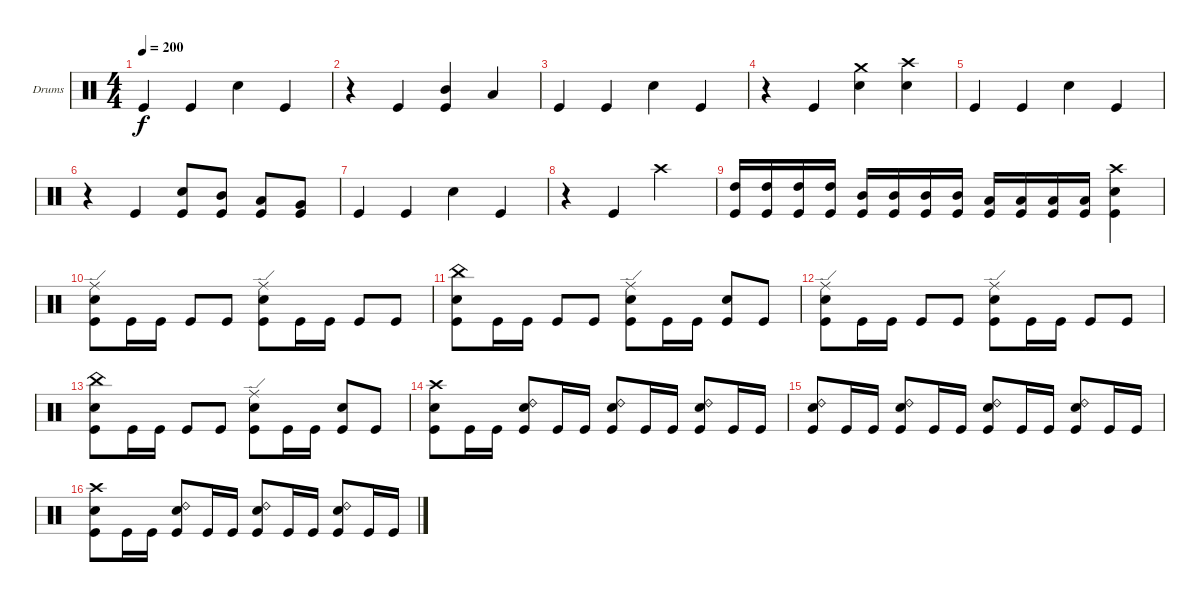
\bracketExtendMode groupsimilarinstruments
\firstSystemTrackNameOrientation horizontal
\otherSystemsTrackNameOrientation horizontal
\track ("Canadien" "Drums") {instrument percussion}
\staff {score}
\articulation defaults
\ts (4 4)
\tempo 200
\clef neutral
\ks c "Kick (hit)".4{dy f} "Kick (hit)".4 "Snare (hit) 2".4 "Kick (hit)".4
|
r.4 "Kick (hit)".4 ("Mid Tom (hit)" "Kick (hit)").4 "Low Tom (hit)".4 |
"Kick (hit)".4 "Kick (hit)".4 "Snare (hit) 2".4 "Kick (hit)".4 |
r.4 "Kick (hit)".4 ("Crash medium (hit)" "Snare (hit) 2").4 ("Crash high (hit)" "Snare (hit) 2").4 |
"Kick (hit)".4 "Kick (hit)".4 "Snare (hit) 2".4 "Kick (hit)".4 |
r.4 "Kick (hit)".4 ("Snare (hit) 2" "Kick (hit)").8 ("Mid Tom (hit)" "Kick (hit)").8 ("Low Tom (hit)" "Kick (hit)").8 ("Very Low Tom (hit)" "Kick (hit)").8 |
"Kick (hit)".4 "Kick (hit)".4 "Snare (hit) 2".4 "Kick (hit)".4 |
r.4 "Kick (hit)".4 "Crash high (hit)".2 |
("High Tom (hit)" "Kick (hit)").16 ("High Tom (hit)" "Kick (hit)").16 ("High Tom (hit)" "Kick (hit)").16 ("High Tom (hit)" "Kick (hit)").16 ("Mid Tom (hit)" "Kick (hit)").16 ("Mid Tom (hit)" "Kick (hit)").16 ("Mid Tom (hit)" "Kick (hit)").16 ("Mid Tom (hit)" "Kick (hit)").16 ("Low Tom (hit)" "Kick (hit)").16 ("Low Tom (hit)" "Kick (hit)").16 ("Low Tom (hit)" "Kick (hit)").16 ("Low Tom (hit)" "Kick (hit)").16 ("Snare (hit) 2" "Crash high (hit)" "Kick (hit)").4 |
("Ride (edge)" "Snare (hit) 2" "Kick (hit)").8 "Kick (hit)".16 "Kick (hit)".16 "Kick (hit)".8 "Kick (hit)".8 ("Ride (edge)" "Snare (hit) 2" "Kick (hit)").8 "Kick (hit)".16 "Kick (hit)".16 "Kick (hit)".8 "Kick (hit)".8 |
("China (hit)" "Snare (hit) 2" "Kick (hit)").8 "Kick (hit)".16 "Kick (hit)".16 "Kick (hit)".8 "Kick (hit)".8 ("Ride (edge)" "Snare (hit) 2" "Kick (hit)").8 "Kick (hit)".16 "Kick (hit)".16 ("Snare (hit) 2" "Kick (hit)").8 "Kick (hit)".8 |
("Ride (edge)" "Snare (hit) 2" "Kick (hit)").8 "Kick (hit)".16 "Kick (hit)".16 "Kick (hit)".8 "Kick (hit)".8 ("Ride (edge)" "Snare (hit) 2" "Kick (hit)").8 "Kick (hit)".16 "Kick (hit)".16 "Kick (hit)".8 "Kick (hit)".8 |
("China (hit)" "Snare (hit) 2" "Kick (hit)").8 "Kick (hit)".16 "Kick (hit)".16 "Kick (hit)".8 "Kick (hit)".8 ("Ride (edge)" "Snare (hit) 2" "Kick (hit)").8 "Kick (hit)".16 "Kick (hit)".16 ("Snare (hit) 2" "Kick (hit)").8 "Kick (hit)".8 |
("Crash high (hit)" "Snare (hit) 2" "Kick (hit)").8 "Kick (hit)".16 "Kick (hit)".16 ("Ride (bell) 2" "Snare (hit) 2" "Kick (hit)").8 "Kick (hit)".16 "Kick (hit)".16 ("Ride (bell) 2" "Snare (hit) 2" "Kick (hit)").8 "Kick (hit)".16 "Kick (hit)".16 ("Ride (bell) 2" "Snare (hit) 2" "Kick (hit)").8 "Kick (hit)".16 "Kick (hit)".16 |
("Ride (bell) 2" "Snare (hit) 2" "Kick (hit)").8 "Kick (hit)".16 "Kick (hit)".16 ("Ride (bell) 2" "Snare (hit) 2" "Kick (hit)").8 "Kick (hit)".16 "Kick (hit)".16 ("Ride (bell) 2" "Snare (hit) 2" "Kick (hit)").8 "Kick (hit)".16 "Kick (hit)".16 ("Ride (bell) 2" "Snare (hit) 2" "Kick (hit)").8 "Kick (hit)".16 "Kick (hit)".16 |
("Crash high (hit)" "Snare (hit) 2" "Kick (hit)").8 "Kick (hit)".16 "Kick (hit)".16 ("Ride (bell) 2" "Snare (hit) 2" "Kick (hit)").8 "Kick (hit)".16 "Kick (hit)".16 ("Ride (bell) 2" "Snare (hit) 2" "Kick (hit)").8 "Kick (hit)".16 "Kick (hit)".16 ("Ride (bell) 2" "Snare (hit) 2" "Kick (hit)").8 "Kick (hit)".16 "Kick (hit)".16
